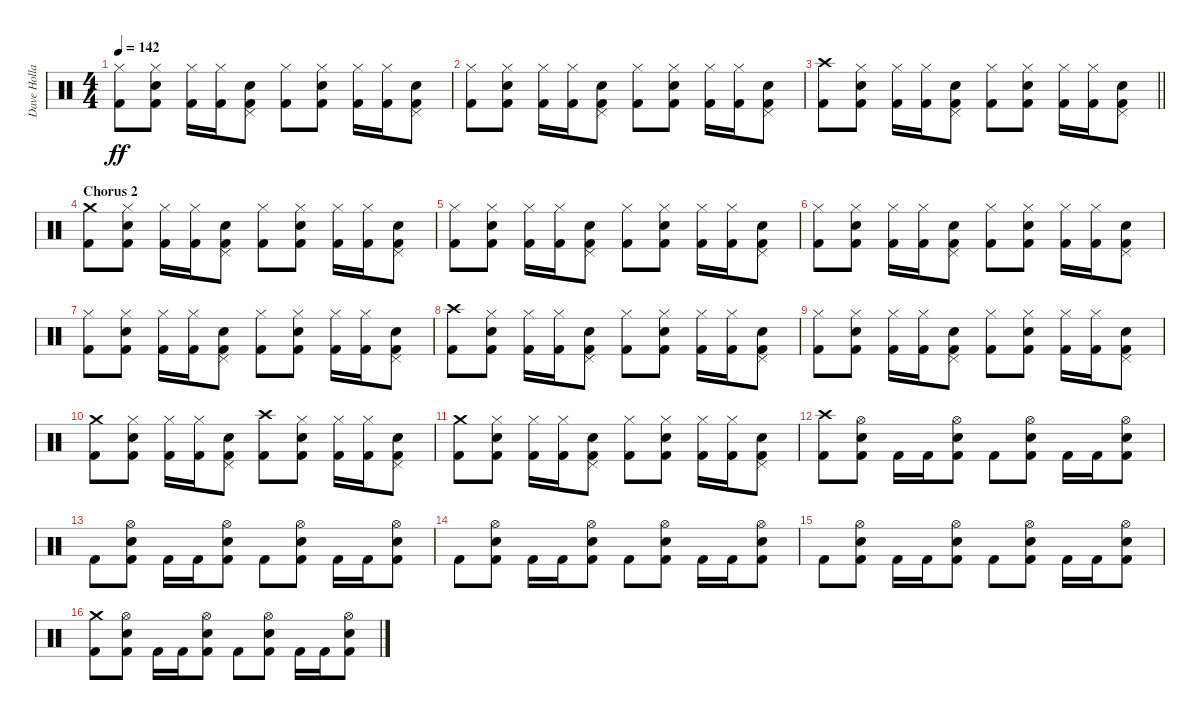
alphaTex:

\track ("Dave Holland" "Dave Holla") {instrument percussion}
\staff {score}
\articulation defaults
\ts (4 4)
\tempo 142
\clef neutral
\ks c
("Hi-Hat (closed)" "Kick (hit) 2").8{dy ff} ("Hi-Hat (closed)" "Snare (hit) 2" "Kick (hit) 2").8 ("Hi-Hat (closed)" "Kick (hit) 2").16 ("Hi-Hat (closed)" "Kick (hit) 2").16 ("Pedal Hi-Hat (hit)" "Snare (hit) 2" "Kick (hit) 2").8 ("Hi-Hat (closed)" "Kick (hit) 2").8 ("Hi-Hat (closed)" "Snare (hit) 2" "Kick (hit) 2").8 ("Hi-Hat (closed)" "Kick (hit) 2").16 ("Hi-Hat (closed)" "Kick (hit) 2").16 ("Pedal Hi-Hat (hit)" "Snare (hit) 2" "Kick (hit) 2").8 |
("Hi-Hat (closed)" "Kick (hit) 2").8 ("Hi-Hat (closed)" "Snare (hit) 2" "Kick (hit) 2").8 ("Hi-Hat (closed)" "Kick (hit) 2").16 ("Hi-Hat (closed)" "Kick (hit) 2").16 ("Pedal Hi-Hat (hit)" "Snare (hit) 2" "Kick (hit) 2").8 ("Hi-Hat (closed)" "Kick (hit) 2").8 ("Hi-Hat (closed)" "Snare (hit) 2" "Kick (hit) 2").8 ("Hi-Hat (closed)" "Kick (hit) 2").16 ("Hi-Hat (closed)" "Kick (hit) 2").16 ("Pedal Hi-Hat (hit)" "Snare (hit) 2" "Kick (hit) 2").8 |
\barLineRight lightlight
("Crash high (hit)" "Kick (hit) 2").8 ("Hi-Hat (closed)" "Snare (hit) 2" "Kick (hit) 2").8 ("Hi-Hat (closed)" "Kick (hit) 2").16 ("Hi-Hat (closed)" "Kick (hit) 2").16 ("Pedal Hi-Hat (hit)" "Snare (hit) 2" "Kick (hit) 2").8 ("Hi-Hat (closed)" "Kick (hit) 2").8 ("Hi-Hat (closed)" "Snare (hit) 2" "Kick (hit) 2").8 ("Hi-Hat (closed)" "Kick (hit) 2").16 ("Hi-Hat (closed)" "Kick (hit) 2").16 ("Pedal Hi-Hat (hit)" "Snare (hit) 2" "Kick (hit) 2").8 |
\section ("" "Chorus 2")
("Crash medium (hit)" "Kick (hit) 2").8 ("Hi-Hat (closed)" "Snare (hit) 2" "Kick (hit) 2").8 ("Hi-Hat (closed)" "Kick (hit) 2").16 ("Hi-Hat (closed)" "Kick (hit) 2").16 ("Pedal Hi-Hat (hit)" "Snare (hit) 2" "Kick (hit) 2").8 ("Hi-Hat (closed)" "Kick (hit) 2").8 ("Hi-Hat (closed)" "Snare (hit) 2" "Kick (hit) 2").8 ("Hi-Hat (closed)" "Kick (hit) 2").16 ("Hi-Hat (closed)" "Kick (hit) 2").16 ("Pedal Hi-Hat (hit)" "Snare (hit) 2" "Kick (hit) 2").8 |
("Hi-Hat (closed)" "Kick (hit) 2").8 ("Hi-Hat (closed)" "Snare (hit) 2" "Kick (hit) 2").8 ("Hi-Hat (closed)" "Kick (hit) 2").16 ("Hi-Hat (closed)" "Kick (hit) 2").16 ("Pedal Hi-Hat (hit)" "Snare (hit) 2" "Kick (hit) 2").8 ("Hi-Hat (closed)" "Kick (hit) 2").8 ("Hi-Hat (closed)" "Snare (hit) 2" "Kick (hit) 2").8 ("Hi-Hat (closed)" "Kick (hit) 2").16 ("Hi-Hat (closed)" "Kick (hit) 2").16 ("Pedal Hi-Hat (hit)" "Snare (hit) 2" "Kick (hit) 2").8 |
("Hi-Hat (closed)" "Kick (hit) 2").8 ("Hi-Hat (closed)" "Snare (hit) 2" "Kick (hit) 2").8 ("Hi-Hat (closed)" "Kick (hit) 2").16 ("Hi-Hat (closed)" "Kick (hit) 2").16 ("Pedal Hi-Hat (hit)" "Snare (hit) 2" "Kick (hit) 2").8 ("Hi-Hat (closed)" "Kick (hit) 2").8 ("Hi-Hat (closed)" "Snare (hit) 2" "Kick (hit) 2").8 ("Hi-Hat (closed)" "Kick (hit) 2").16 ("Hi-Hat (closed)" "Kick (hit) 2").16 ("Pedal Hi-Hat (hit)" "Snare (hit) 2" "Kick (hit) 2").8 |
("Hi-Hat (closed)" "Kick (hit) 2").8 ("Hi-Hat (closed)" "Snare (hit) 2" "Kick (hit) 2").8 ("Hi-Hat (closed)" "Kick (hit) 2").16 ("Hi-Hat (closed)" "Kick (hit) 2").16 ("Pedal Hi-Hat (hit)" "Snare (hit) 2" "Kick (hit) 2").8 ("Hi-Hat (closed)" "Kick (hit) 2").8 ("Hi-Hat (closed)" "Snare (hit) 2" "Kick (hit) 2").8 ("Hi-Hat (closed)" "Kick (hit) 2").16 ("Hi-Hat (closed)" "Kick (hit) 2").16 ("Pedal Hi-Hat (hit)" "Snare (hit) 2" "Kick (hit) 2").8 |
("Crash high (hit)" "Kick (hit) 2").8 ("Hi-Hat (closed)" "Snare (hit) 2" "Kick (hit) 2").8 ("Hi-Hat (closed)" "Kick (hit) 2").16 ("Hi-Hat (closed)" "Kick (hit) 2").16 ("Pedal Hi-Hat (hit)" "Snare (hit) 2" "Kick (hit) 2").8 ("Hi-Hat (closed)" "Kick (hit) 2").8 ("Hi-Hat (closed)" "Snare (hit) 2" "Kick (hit) 2").8 ("Hi-Hat (closed)" "Kick (hit) 2").16 ("Hi-Hat (closed)" "Kick (hit) 2").16 ("Pedal Hi-Hat (hit)" "Snare (hit) 2" "Kick (hit) 2").8 |
("Hi-Hat (closed)" "Kick (hit) 2").8 ("Hi-Hat (closed)" "Snare (hit) 2" "Kick (hit) 2").8 ("Hi-Hat (closed)" "Kick (hit) 2").16 ("Hi-Hat (closed)" "Kick (hit) 2").16 ("Pedal Hi-Hat (hit)" "Snare (hit) 2" "Kick (hit) 2").8 ("Hi-Hat (closed)" "Kick (hit) 2").8 ("Hi-Hat (closed)" "Snare (hit) 2" "Kick (hit) 2").8 ("Hi-Hat (closed)" "Kick (hit) 2").16 ("Hi-Hat (closed)" "Kick (hit) 2").16 ("Pedal Hi-Hat (hit)" "Snare (hit) 2" "Kick (hit) 2").8 |
("Crash medium (hit)" "Kick (hit) 2").8 ("Hi-Hat (closed)" "Snare (hit) 2" "Kick (hit) 2").8 ("Hi-Hat (closed)" "Kick (hit) 2").16 ("Hi-Hat (closed)" "Kick (hit) 2").16 ("Pedal Hi-Hat (hit)" "Snare (hit) 2" "Kick (hit) 2").8 ("Crash high (hit)" "Kick (hit) 2").8 ("Hi-Hat (closed)" "Snare (hit) 2" "Kick (hit) 2").8 ("Hi-Hat (closed)" "Kick (hit) 2").16 ("Hi-Hat (closed)" "Kick (hit) 2").16 ("Pedal Hi-Hat (hit)" "Snare (hit) 2" "Kick (hit) 2").8 |
("Crash medium (hit)" "Kick (hit) 2").8 ("Hi-Hat (closed)" "Snare (hit) 2" "Kick (hit) 2").8 ("Hi-Hat (closed)" "Kick (hit) 2").16 ("Hi-Hat (closed)" "Kick (hit) 2").16 ("Pedal Hi-Hat (hit)" "Snare (hit) 2" "Kick (hit) 2").8 ("Hi-Hat (closed)" "Kick (hit) 2").8 ("Hi-Hat (closed)" "Snare (hit) 2" "Kick (hit) 2").8 ("Hi-Hat (closed)" "Kick (hit) 2").16 ("Hi-Hat (closed)" "Kick (hit) 2").16 ("Pedal Hi-Hat (hit)" "Snare (hit) 2" "Kick (hit) 2").8 |
("Crash high (hit)" "Kick (hit) 2").8 ("Hi-Hat (open)" "Snare (hit) 2" "Kick (hit) 2").8 "Kick (hit) 2".16 "Kick (hit) 2".16 ("Hi-Hat (open)" "Snare (hit) 2" "Kick (hit) 2").8 "Kick (hit) 2".8 ("Hi-Hat (open)" "Snare (hit) 2" "Kick (hit) 2").8 "Kick (hit) 2".16 "Kick (hit) 2".16 ("Hi-Hat (open)" "Snare (hit) 2" "Kick (hit) 2").8 |
"Kick (hit) 2".8 ("Hi-Hat (open)" "Snare (hit) 2" "Kick (hit) 2").8 "Kick (hit) 2".16 "Kick (hit) 2".16 ("Hi-Hat (open)" "Snare (hit) 2" "Kick (hit) 2").8 "Kick (hit) 2".8 ("Hi-Hat (open)" "Snare (hit) 2" "Kick (hit) 2").8 "Kick (hit) 2".16 "Kick (hit) 2".16 ("Hi-Hat (open)" "Snare (hit) 2" "Kick (hit) 2").8 |
"Kick (hit) 2".8 ("Hi-Hat (open)" "Snare (hit) 2" "Kick (hit) 2").8 "Kick (hit) 2".16 "Kick (hit) 2".16 ("Hi-Hat (open)" "Snare (hit) 2" "Kick (hit) 2").8 "Kick (hit) 2".8 ("Hi-Hat (open)" "Snare (hit) 2" "Kick (hit) 2").8 "Kick (hit) 2".16 "Kick (hit) 2".16 ("Hi-Hat (open)" "Snare (hit) 2" "Kick (hit) 2").8 |
"Kick (hit) 2".8 ("Hi-Hat (open)" "Snare (hit) 2" "Kick (hit) 2").8 "Kick (hit) 2".16 "Kick (hit) 2".16 ("Hi-Hat (open)" "Snare (hit) 2" "Kick (hit) 2").8 "Kick (hit) 2".8 ("Hi-Hat (open)" "Snare (hit) 2" "Kick (hit) 2").8 "Kick (hit) 2".16 "Kick (hit) 2".16 ("Hi-Hat (open)" "Snare (hit) 2" "Kick (hit) 2").8 |
("Crash medium (hit)" "Kick (hit) 2").8 ("Hi-Hat (open)" "Snare (hit) 2" "Kick (hit) 2").8 "Kick (hit) 2".16 "Kick (hit) 2".16 ("Hi-Hat (open)" "Snare (hit) 2" "Kick (hit) 2").8 "Kick (hit) 2".8 ("Hi-Hat (open)" "Snare (hit) 2" "Kick (hit) 2").8 "Kick (hit) 2".16 "Kick (hit) 2".16 ("Hi-Hat (open)" "Snare (hit) 2" "Kick (hit) 2").8
